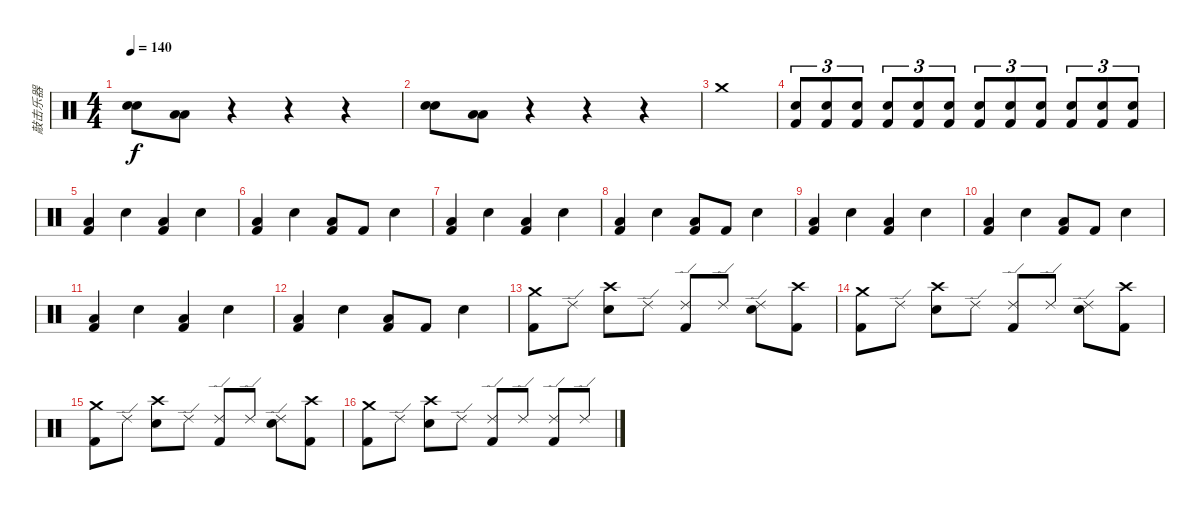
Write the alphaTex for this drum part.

\track ("敲击乐器" "敲击乐器") {instrument percussion}
\staff {score}
\articulation defaults
\ts (4 4)
\tempo 140
\clef neutral
\ks c
("Snare (hit) 2" "Snare (hit) 2").8{bd 240 dy f} ("Low Tom (hit)" "Low Tom (hit)").8{bd 240} r.4 r.4 r.4 |
("Snare (hit) 2" "Snare (hit) 2").8{bd 240} ("Low Tom (hit)" "Low Tom (hit)").8{bd 240} r.4 r.4 r.4 |
"Crash medium (hit)".1 |
("Electric Snare (hit)" "Kick (hit) 2").8{tu (3 2)} ("Electric Snare (hit)" "Kick (hit) 2").8{tu (3 2)} ("Electric Snare (hit)" "Kick (hit) 2").8{tu (3 2)} ("Electric Snare (hit)" "Kick (hit) 2").8{tu (3 2)} ("Electric Snare (hit)" "Kick (hit) 2").8{tu (3 2)} ("Electric Snare (hit)" "Kick (hit) 2").8{tu (3 2)} ("Electric Snare (hit)" "Kick (hit) 2").8{tu (3 2)} ("Electric Snare (hit)" "Kick (hit) 2").8{tu (3 2)} ("Electric Snare (hit)" "Kick (hit) 2").8{tu (3 2)} ("Electric Snare (hit)" "Kick (hit) 2").8{tu (3 2)} ("Electric Snare (hit)" "Kick (hit) 2").8{tu (3 2)} ("Electric Snare (hit)" "Kick (hit) 2").8{tu (3 2)} |
("Low Tom (hit)" "Kick (hit) 2").4 "Electric Snare (hit)".4 ("Low Tom (hit)" "Kick (hit) 2").4 "Electric Snare (hit)".4 |
("Low Tom (hit)" "Kick (hit) 2").4 "Electric Snare (hit)".4 ("Low Tom (hit)" "Kick (hit) 2").8 "Kick (hit) 2".8 "Electric Snare (hit)".4 |
("Low Tom (hit)" "Kick (hit) 2").4 "Electric Snare (hit)".4 ("Low Tom (hit)" "Kick (hit) 2").4 "Electric Snare (hit)".4 |
("Low Tom (hit)" "Kick (hit) 2").4 "Electric Snare (hit)".4 ("Low Tom (hit)" "Kick (hit) 2").8 "Kick (hit) 2".8 "Electric Snare (hit)".4 |
("Low Tom (hit)" "Kick (hit) 2").4 "Electric Snare (hit)".4 ("Low Tom (hit)" "Kick (hit) 2").4 "Electric Snare (hit)".4 |
("Low Tom (hit)" "Kick (hit) 2").4 "Electric Snare (hit)".4 ("Low Tom (hit)" "Kick (hit) 2").8 "Kick (hit) 2".8 "Electric Snare (hit)".4 |
("Low Tom (hit)" "Kick (hit) 2").4 "Electric Snare (hit)".4 ("Low Tom (hit)" "Kick (hit) 2").4 "Electric Snare (hit)".4 |
("Low Tom (hit)" "Kick (hit) 2").4 "Electric Snare (hit)".4 ("Low Tom (hit)" "Kick (hit) 2").8 "Kick (hit) 2".8 "Electric Snare (hit)".4 |
("Crash medium (hit)" "Kick (hit) 2").8 "Ride (edge) 2".8 ("Crash high (hit)" "Snare (hit) 2").8 "Ride (edge) 2".8 ("Ride (edge) 2" "Kick (hit) 2").8 "Ride (edge) 2".8 ("Ride (edge) 2" "Snare (hit) 2").8 ("Crash high (hit)" "Kick (hit) 2").8 |
("Crash medium (hit)" "Kick (hit) 2").8 "Ride (edge) 2".8 ("Crash high (hit)" "Snare (hit) 2").8 "Ride (edge) 2".8 ("Ride (edge) 2" "Kick (hit) 2").8 "Ride (edge) 2".8 ("Ride (edge) 2" "Snare (hit) 2").8 ("Crash high (hit)" "Kick (hit) 2").8 |
("Crash medium (hit)" "Kick (hit) 2").8 "Ride (edge) 2".8 ("Crash high (hit)" "Snare (hit) 2").8 "Ride (edge) 2".8 ("Ride (edge) 2" "Kick (hit) 2").8 "Ride (edge) 2".8 ("Ride (edge) 2" "Snare (hit) 2").8 ("Crash high (hit)" "Kick (hit) 2").8 |
("Crash medium (hit)" "Kick (hit) 2").8 "Ride (edge) 2".8 ("Crash high (hit)" "Snare (hit) 2").8 "Ride (edge) 2".8 ("Ride (edge) 2" "Kick (hit) 2").8 "Ride (edge) 2".8 ("Ride (edge) 2" "Kick (hit) 2").8 "Ride (edge) 2".8
